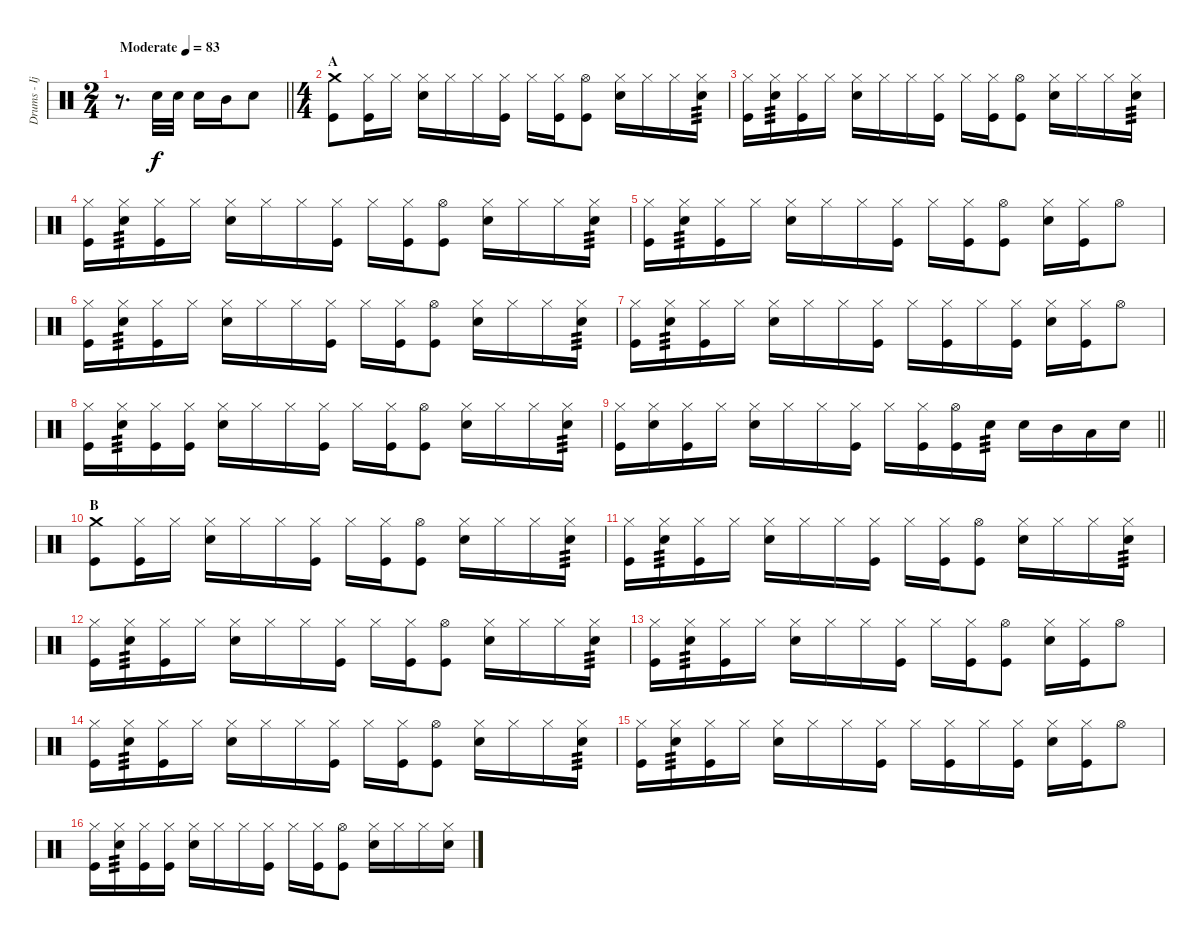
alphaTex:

\track ("Drums - Ijichi" "Drums - Ij") {instrument percussion}
\staff {score}
\articulation defaults
\ts (2 4)
\tempo (83 "Moderate")
\clef neutral
\barLineRight lightlight
\ks c
r.8{d dy f} "Electric Snare (hit)".32 "Electric Snare (hit)".32 "Electric Snare (hit)".16 "Mid Tom (hit)".16 "Electric Snare (hit)".8 |
\ts (4 4)
\section ("" "A")
("Crash medium (hit)" "Kick (hit)").8 ("Hi-Hat (closed)" "Kick (hit)").16 "Hi-Hat (closed)".16 ("Hi-Hat (closed)" "Electric Snare (hit)").16 "Hi-Hat (closed)".16 "Hi-Hat (closed)".16 ("Hi-Hat (closed)" "Kick (hit)").16 "Hi-Hat (closed)".16 ("Hi-Hat (closed)" "Kick (hit)").16 ("Hi-Hat (open)" "Kick (hit)").8 ("Hi-Hat (closed)" "Electric Snare (hit)").16 "Hi-Hat (closed)".16 "Hi-Hat (closed)".16 ("Hi-Hat (closed)" "Electric Snare (hit)").16{tp 3} |
("Hi-Hat (closed)" "Kick (hit)").16 ("Hi-Hat (closed)" "Electric Snare (hit)").16{tp 3} ("Hi-Hat (closed)" "Kick (hit)").16 "Hi-Hat (closed)".16 ("Hi-Hat (closed)" "Electric Snare (hit)").16 "Hi-Hat (closed)".16 "Hi-Hat (closed)".16 ("Hi-Hat (closed)" "Kick (hit)").16 "Hi-Hat (closed)".16 ("Hi-Hat (closed)" "Kick (hit)").16 ("Hi-Hat (open)" "Kick (hit)").8 ("Hi-Hat (closed)" "Electric Snare (hit)").16 "Hi-Hat (closed)".16 "Hi-Hat (closed)".16 ("Hi-Hat (closed)" "Electric Snare (hit)").16{tp 3} |
("Hi-Hat (closed)" "Kick (hit)").16 ("Hi-Hat (closed)" "Electric Snare (hit)").16{tp 3} ("Hi-Hat (closed)" "Kick (hit)").16 "Hi-Hat (closed)".16 ("Hi-Hat (closed)" "Electric Snare (hit)").16 "Hi-Hat (closed)".16 "Hi-Hat (closed)".16 ("Hi-Hat (closed)" "Kick (hit)").16 "Hi-Hat (closed)".16 ("Hi-Hat (closed)" "Kick (hit)").16 ("Hi-Hat (open)" "Kick (hit)").8 ("Hi-Hat (closed)" "Electric Snare (hit)").16 "Hi-Hat (closed)".16 "Hi-Hat (closed)".16 ("Hi-Hat (closed)" "Electric Snare (hit)").16{tp 3} |
("Hi-Hat (closed)" "Kick (hit)").16 ("Hi-Hat (closed)" "Electric Snare (hit)").16{tp 3} ("Hi-Hat (closed)" "Kick (hit)").16 "Hi-Hat (closed)".16 ("Hi-Hat (closed)" "Electric Snare (hit)").16 "Hi-Hat (closed)".16 "Hi-Hat (closed)".16 ("Hi-Hat (closed)" "Kick (hit)").16 "Hi-Hat (closed)".16 ("Hi-Hat (closed)" "Kick (hit)").16 ("Hi-Hat (open)" "Kick (hit)").8 ("Hi-Hat (closed)" "Electric Snare (hit)").16 ("Hi-Hat (closed)" "Kick (hit)").16 "Hi-Hat (open)".8 |
("Hi-Hat (closed)" "Kick (hit)").16 ("Hi-Hat (closed)" "Electric Snare (hit)").16{tp 3} ("Hi-Hat (closed)" "Kick (hit)").16 "Hi-Hat (closed)".16 ("Hi-Hat (closed)" "Electric Snare (hit)").16 "Hi-Hat (closed)".16 "Hi-Hat (closed)".16 ("Hi-Hat (closed)" "Kick (hit)").16 "Hi-Hat (closed)".16 ("Hi-Hat (closed)" "Kick (hit)").16 ("Hi-Hat (open)" "Kick (hit)").8 ("Hi-Hat (closed)" "Electric Snare (hit)").16 "Hi-Hat (closed)".16 "Hi-Hat (closed)".16 ("Hi-Hat (closed)" "Electric Snare (hit)").16{tp 3} |
("Hi-Hat (closed)" "Kick (hit)").16 ("Hi-Hat (closed)" "Electric Snare (hit)").16{tp 3} ("Hi-Hat (closed)" "Kick (hit)").16 "Hi-Hat (closed)".16 ("Hi-Hat (closed)" "Electric Snare (hit)").16 "Hi-Hat (closed)".16 "Hi-Hat (closed)".16 ("Hi-Hat (closed)" "Kick (hit)").16 "Hi-Hat (closed)".16 ("Hi-Hat (closed)" "Kick (hit)").16 "Hi-Hat (closed)".16 ("Hi-Hat (closed)" "Kick (hit)").16 ("Hi-Hat (closed)" "Electric Snare (hit)").16 ("Hi-Hat (closed)" "Kick (hit)").16 "Hi-Hat (open)".8 |
("Hi-Hat (closed)" "Kick (hit)").16 ("Hi-Hat (closed)" "Electric Snare (hit)").16{tp 3} ("Hi-Hat (closed)" "Kick (hit)").16 ("Hi-Hat (closed)" "Kick (hit)").16 ("Hi-Hat (closed)" "Electric Snare (hit)").16 "Hi-Hat (closed)".16 "Hi-Hat (closed)".16 ("Hi-Hat (closed)" "Kick (hit)").16 "Hi-Hat (closed)".16 ("Hi-Hat (closed)" "Kick (hit)").16 ("Hi-Hat (open)" "Kick (hit)").8 ("Hi-Hat (closed)" "Electric Snare (hit)").16 "Hi-Hat (closed)".16 "Hi-Hat (closed)".16 ("Hi-Hat (closed)" "Electric Snare (hit)").16{tp 3} |
\barLineRight lightlight
("Hi-Hat (closed)" "Kick (hit)").16 ("Hi-Hat (closed)" "Electric Snare (hit)").16 ("Hi-Hat (closed)" "Kick (hit)").16 "Hi-Hat (closed)".16 ("Hi-Hat (closed)" "Electric Snare (hit)").16 "Hi-Hat (closed)".16 "Hi-Hat (closed)".16 ("Hi-Hat (closed)" "Kick (hit)").16 "Hi-Hat (closed)".16 ("Hi-Hat (closed)" "Kick (hit)").16 ("Hi-Hat (open)" "Kick (hit)").16 "Electric Snare (hit)".16{tp 3} "Electric Snare (hit)".16 "Mid Tom (hit)".16 "Low Tom (hit)".16 "Electric Snare (hit)".16 |
\section ("" "B")
("Crash medium (hit)" "Kick (hit)").8 ("Hi-Hat (closed)" "Kick (hit)").16 "Hi-Hat (closed)".16 ("Hi-Hat (closed)" "Electric Snare (hit)").16 "Hi-Hat (closed)".16 "Hi-Hat (closed)".16 ("Hi-Hat (closed)" "Kick (hit)").16 "Hi-Hat (closed)".16 ("Hi-Hat (closed)" "Kick (hit)").16 ("Hi-Hat (open)" "Kick (hit)").8 ("Hi-Hat (closed)" "Electric Snare (hit)").16 "Hi-Hat (closed)".16 "Hi-Hat (closed)".16 ("Hi-Hat (closed)" "Electric Snare (hit)").16{tp 3} |
("Hi-Hat (closed)" "Kick (hit)").16 ("Hi-Hat (closed)" "Electric Snare (hit)").16{tp 3} ("Hi-Hat (closed)" "Kick (hit)").16 "Hi-Hat (closed)".16 ("Hi-Hat (closed)" "Electric Snare (hit)").16 "Hi-Hat (closed)".16 "Hi-Hat (closed)".16 ("Hi-Hat (closed)" "Kick (hit)").16 "Hi-Hat (closed)".16 ("Hi-Hat (closed)" "Kick (hit)").16 ("Hi-Hat (open)" "Kick (hit)").8 ("Hi-Hat (closed)" "Electric Snare (hit)").16 "Hi-Hat (closed)".16 "Hi-Hat (closed)".16 ("Hi-Hat (closed)" "Electric Snare (hit)").16{tp 3} |
("Hi-Hat (closed)" "Kick (hit)").16 ("Hi-Hat (closed)" "Electric Snare (hit)").16{tp 3} ("Hi-Hat (closed)" "Kick (hit)").16 "Hi-Hat (closed)".16 ("Hi-Hat (closed)" "Electric Snare (hit)").16 "Hi-Hat (closed)".16 "Hi-Hat (closed)".16 ("Hi-Hat (closed)" "Kick (hit)").16 "Hi-Hat (closed)".16 ("Hi-Hat (closed)" "Kick (hit)").16 ("Hi-Hat (open)" "Kick (hit)").8 ("Hi-Hat (closed)" "Electric Snare (hit)").16 "Hi-Hat (closed)".16 "Hi-Hat (closed)".16 ("Hi-Hat (closed)" "Electric Snare (hit)").16{tp 3} |
("Hi-Hat (closed)" "Kick (hit)").16 ("Hi-Hat (closed)" "Electric Snare (hit)").16{tp 3} ("Hi-Hat (closed)" "Kick (hit)").16 "Hi-Hat (closed)".16 ("Hi-Hat (closed)" "Electric Snare (hit)").16 "Hi-Hat (closed)".16 "Hi-Hat (closed)".16 ("Hi-Hat (closed)" "Kick (hit)").16 "Hi-Hat (closed)".16 ("Hi-Hat (closed)" "Kick (hit)").16 ("Hi-Hat (open)" "Kick (hit)").8 ("Hi-Hat (closed)" "Electric Snare (hit)").16 ("Hi-Hat (closed)" "Kick (hit)").16 "Hi-Hat (open)".8 |
("Hi-Hat (closed)" "Kick (hit)").16 ("Hi-Hat (closed)" "Electric Snare (hit)").16{tp 3} ("Hi-Hat (closed)" "Kick (hit)").16 "Hi-Hat (closed)".16 ("Hi-Hat (closed)" "Electric Snare (hit)").16 "Hi-Hat (closed)".16 "Hi-Hat (closed)".16 ("Hi-Hat (closed)" "Kick (hit)").16 "Hi-Hat (closed)".16 ("Hi-Hat (closed)" "Kick (hit)").16 ("Hi-Hat (open)" "Kick (hit)").8 ("Hi-Hat (closed)" "Electric Snare (hit)").16 "Hi-Hat (closed)".16 "Hi-Hat (closed)".16 ("Hi-Hat (closed)" "Electric Snare (hit)").16{tp 3} |
("Hi-Hat (closed)" "Kick (hit)").16 ("Hi-Hat (closed)" "Electric Snare (hit)").16{tp 3} ("Hi-Hat (closed)" "Kick (hit)").16 "Hi-Hat (closed)".16 ("Hi-Hat (closed)" "Electric Snare (hit)").16 "Hi-Hat (closed)".16 "Hi-Hat (closed)".16 ("Hi-Hat (closed)" "Kick (hit)").16 "Hi-Hat (closed)".16 ("Hi-Hat (closed)" "Kick (hit)").16 "Hi-Hat (closed)".16 ("Hi-Hat (closed)" "Kick (hit)").16 ("Hi-Hat (closed)" "Electric Snare (hit)").16 ("Hi-Hat (closed)" "Kick (hit)").16 "Hi-Hat (open)".8 |
("Hi-Hat (closed)" "Kick (hit)").16 ("Hi-Hat (closed)" "Electric Snare (hit)").16{tp 3} ("Hi-Hat (closed)" "Kick (hit)").16 ("Hi-Hat (closed)" "Kick (hit)").16 ("Hi-Hat (closed)" "Electric Snare (hit)").16 "Hi-Hat (closed)".16 "Hi-Hat (closed)".16 ("Hi-Hat (closed)" "Kick (hit)").16 "Hi-Hat (closed)".16 ("Hi-Hat (closed)" "Kick (hit)").16 ("Hi-Hat (open)" "Kick (hit)").8 ("Hi-Hat (closed)" "Electric Snare (hit)").16 "Hi-Hat (closed)".16 "Hi-Hat (closed)".16 ("Hi-Hat (closed)" "Electric Snare (hit)").16
